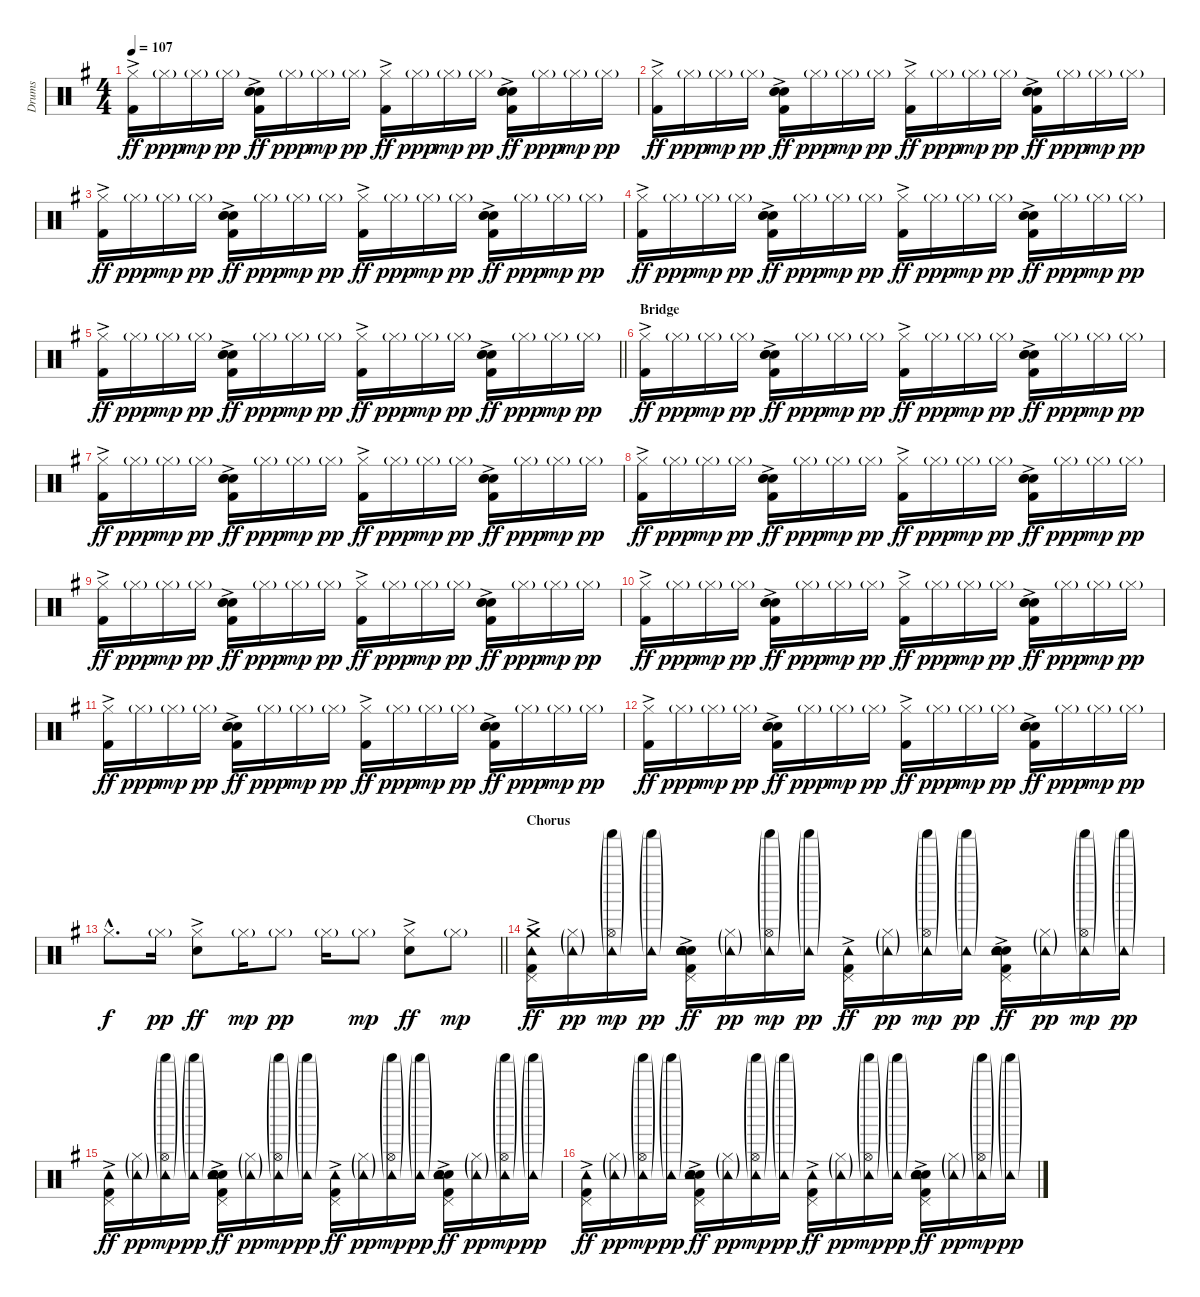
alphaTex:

\track ("Drums" "Drums") {instrument percussion}
\staff {score}
\articulation defaults
\ts (4 4)
\tempo 107
\clef neutral
\ks g
("Hi-Hat (closed)" "Kick (hit) 2"{ac}).16{dy ff} "Hi-Hat (closed)"{g}.16{dy ppp} "Hi-Hat (closed)"{g}.16{dy mp} "Hi-Hat (closed)"{g}.16{dy pp} ("Hand Clap (hit)" "Electric Snare (hit)"{ac} "Snare (hit) 2" "Kick (hit) 2"{ac}).16{dy ff} "Hi-Hat (closed)"{g}.16{dy ppp} "Hi-Hat (closed)"{g}.16{dy mp} "Hi-Hat (closed)"{g}.16{dy pp} ("Hi-Hat (closed)" "Kick (hit) 2"{ac}).16{dy ff} "Hi-Hat (closed)"{g}.16{dy ppp} "Hi-Hat (closed)"{g}.16{dy mp} "Hi-Hat (closed)"{g}.16{dy pp} ("Hand Clap (hit)" "Electric Snare (hit)"{ac} "Snare (hit) 2" "Kick (hit) 2"{ac}).16{dy ff} "Hi-Hat (closed)"{g}.16{dy ppp} "Hi-Hat (closed)"{g}.16{dy mp} "Hi-Hat (closed)"{g}.16{dy pp} |
("Hi-Hat (closed)" "Kick (hit) 2"{ac}).16{dy ff} "Hi-Hat (closed)"{g}.16{dy ppp} "Hi-Hat (closed)"{g}.16{dy mp} "Hi-Hat (closed)"{g}.16{dy pp} ("Hand Clap (hit)" "Electric Snare (hit)"{ac} "Snare (hit) 2" "Kick (hit) 2"{ac}).16{dy ff} "Hi-Hat (closed)"{g}.16{dy ppp} "Hi-Hat (closed)"{g}.16{dy mp} "Hi-Hat (closed)"{g}.16{dy pp} ("Hi-Hat (closed)" "Kick (hit) 2"{ac}).16{dy ff} "Hi-Hat (closed)"{g}.16{dy ppp} "Hi-Hat (closed)"{g}.16{dy mp} "Hi-Hat (closed)"{g}.16{dy pp} ("Hand Clap (hit)" "Electric Snare (hit)"{ac} "Snare (hit) 2" "Kick (hit) 2"{ac}).16{dy ff} "Hi-Hat (closed)"{g}.16{dy ppp} "Hi-Hat (closed)"{g}.16{dy mp} "Hi-Hat (closed)"{g}.16{dy pp} |
("Hi-Hat (closed)" "Kick (hit) 2"{ac}).16{dy ff} "Hi-Hat (closed)"{g}.16{dy ppp} "Hi-Hat (closed)"{g}.16{dy mp} "Hi-Hat (closed)"{g}.16{dy pp} ("Hand Clap (hit)" "Electric Snare (hit)"{ac} "Snare (hit) 2" "Kick (hit) 2"{ac}).16{dy ff} "Hi-Hat (closed)"{g}.16{dy ppp} "Hi-Hat (closed)"{g}.16{dy mp} "Hi-Hat (closed)"{g}.16{dy pp} ("Hi-Hat (closed)" "Kick (hit) 2"{ac}).16{dy ff} "Hi-Hat (closed)"{g}.16{dy ppp} "Hi-Hat (closed)"{g}.16{dy mp} "Hi-Hat (closed)"{g}.16{dy pp} ("Hand Clap (hit)" "Electric Snare (hit)"{ac} "Snare (hit) 2" "Kick (hit) 2"{ac}).16{dy ff} "Hi-Hat (closed)"{g}.16{dy ppp} "Hi-Hat (closed)"{g}.16{dy mp} "Hi-Hat (closed)"{g}.16{dy pp} |
("Hi-Hat (closed)" "Kick (hit) 2"{ac}).16{dy ff} "Hi-Hat (closed)"{g}.16{dy ppp} "Hi-Hat (closed)"{g}.16{dy mp} "Hi-Hat (closed)"{g}.16{dy pp} ("Hand Clap (hit)" "Electric Snare (hit)"{ac} "Snare (hit) 2" "Kick (hit) 2"{ac}).16{dy ff} "Hi-Hat (closed)"{g}.16{dy ppp} "Hi-Hat (closed)"{g}.16{dy mp} "Hi-Hat (closed)"{g}.16{dy pp} ("Hi-Hat (closed)" "Kick (hit) 2"{ac}).16{dy ff} "Hi-Hat (closed)"{g}.16{dy ppp} "Hi-Hat (closed)"{g}.16{dy mp} "Hi-Hat (closed)"{g}.16{dy pp} ("Hand Clap (hit)" "Electric Snare (hit)"{ac} "Snare (hit) 2" "Kick (hit) 2"{ac}).16{dy ff} "Hi-Hat (closed)"{g}.16{dy ppp} "Hi-Hat (closed)"{g}.16{dy mp} "Hi-Hat (closed)"{g}.16{dy pp} |
\barLineRight lightlight
("Hi-Hat (closed)" "Kick (hit) 2"{ac}).16{dy ff} "Hi-Hat (closed)"{g}.16{dy ppp} "Hi-Hat (closed)"{g}.16{dy mp} "Hi-Hat (closed)"{g}.16{dy pp} ("Hand Clap (hit)" "Electric Snare (hit)"{ac} "Snare (hit) 2" "Kick (hit) 2"{ac}).16{dy ff} "Hi-Hat (closed)"{g}.16{dy ppp} "Hi-Hat (closed)"{g}.16{dy mp} "Hi-Hat (closed)"{g}.16{dy pp} ("Hi-Hat (closed)" "Kick (hit) 2"{ac}).16{dy ff} "Hi-Hat (closed)"{g}.16{dy ppp} "Hi-Hat (closed)"{g}.16{dy mp} "Hi-Hat (closed)"{g}.16{dy pp} ("Hand Clap (hit)" "Electric Snare (hit)"{ac} "Snare (hit) 2" "Kick (hit) 2"{ac}).16{dy ff} "Hi-Hat (closed)"{g}.16{dy ppp} "Hi-Hat (closed)"{g}.16{dy mp} "Hi-Hat (closed)"{g}.16{dy pp} |
\section ("" "Bridge")
("Hi-Hat (closed)" "Kick (hit) 2"{ac}).16{dy ff} "Hi-Hat (closed)"{g}.16{dy ppp} "Hi-Hat (closed)"{g}.16{dy mp} "Hi-Hat (closed)"{g}.16{dy pp} ("Hand Clap (hit)" "Electric Snare (hit)"{ac} "Snare (hit) 2" "Kick (hit) 2"{ac}).16{dy ff} "Hi-Hat (closed)"{g}.16{dy ppp} "Hi-Hat (closed)"{g}.16{dy mp} "Hi-Hat (closed)"{g}.16{dy pp} ("Hi-Hat (closed)" "Kick (hit) 2"{ac}).16{dy ff} "Hi-Hat (closed)"{g}.16{dy ppp} "Hi-Hat (closed)"{g}.16{dy mp} "Hi-Hat (closed)"{g}.16{dy pp} ("Hand Clap (hit)" "Electric Snare (hit)"{ac} "Snare (hit) 2" "Kick (hit) 2"{ac}).16{dy ff} "Hi-Hat (closed)"{g}.16{dy ppp} "Hi-Hat (closed)"{g}.16{dy mp} "Hi-Hat (closed)"{g}.16{dy pp} |
("Hi-Hat (closed)" "Kick (hit) 2"{ac}).16{dy ff} "Hi-Hat (closed)"{g}.16{dy ppp} "Hi-Hat (closed)"{g}.16{dy mp} "Hi-Hat (closed)"{g}.16{dy pp} ("Hand Clap (hit)" "Electric Snare (hit)"{ac} "Snare (hit) 2" "Kick (hit) 2"{ac}).16{dy ff} "Hi-Hat (closed)"{g}.16{dy ppp} "Hi-Hat (closed)"{g}.16{dy mp} "Hi-Hat (closed)"{g}.16{dy pp} ("Hi-Hat (closed)" "Kick (hit) 2"{ac}).16{dy ff} "Hi-Hat (closed)"{g}.16{dy ppp} "Hi-Hat (closed)"{g}.16{dy mp} "Hi-Hat (closed)"{g}.16{dy pp} ("Hand Clap (hit)" "Electric Snare (hit)"{ac} "Snare (hit) 2" "Kick (hit) 2"{ac}).16{dy ff} "Hi-Hat (closed)"{g}.16{dy ppp} "Hi-Hat (closed)"{g}.16{dy mp} "Hi-Hat (closed)"{g}.16{dy pp} |
("Hi-Hat (closed)" "Kick (hit) 2"{ac}).16{dy ff} "Hi-Hat (closed)"{g}.16{dy ppp} "Hi-Hat (closed)"{g}.16{dy mp} "Hi-Hat (closed)"{g}.16{dy pp} ("Hand Clap (hit)" "Electric Snare (hit)"{ac} "Snare (hit) 2" "Kick (hit) 2"{ac}).16{dy ff} "Hi-Hat (closed)"{g}.16{dy ppp} "Hi-Hat (closed)"{g}.16{dy mp} "Hi-Hat (closed)"{g}.16{dy pp} ("Hi-Hat (closed)" "Kick (hit) 2"{ac}).16{dy ff} "Hi-Hat (closed)"{g}.16{dy ppp} "Hi-Hat (closed)"{g}.16{dy mp} "Hi-Hat (closed)"{g}.16{dy pp} ("Hand Clap (hit)" "Electric Snare (hit)"{ac} "Snare (hit) 2" "Kick (hit) 2"{ac}).16{dy ff} "Hi-Hat (closed)"{g}.16{dy ppp} "Hi-Hat (closed)"{g}.16{dy mp} "Hi-Hat (closed)"{g}.16{dy pp} |
("Hi-Hat (closed)" "Kick (hit) 2"{ac}).16{dy ff} "Hi-Hat (closed)"{g}.16{dy ppp} "Hi-Hat (closed)"{g}.16{dy mp} "Hi-Hat (closed)"{g}.16{dy pp} ("Hand Clap (hit)" "Electric Snare (hit)"{ac} "Snare (hit) 2" "Kick (hit) 2"{ac}).16{dy ff} "Hi-Hat (closed)"{g}.16{dy ppp} "Hi-Hat (closed)"{g}.16{dy mp} "Hi-Hat (closed)"{g}.16{dy pp} ("Hi-Hat (closed)" "Kick (hit) 2"{ac}).16{dy ff} "Hi-Hat (closed)"{g}.16{dy ppp} "Hi-Hat (closed)"{g}.16{dy mp} "Hi-Hat (closed)"{g}.16{dy pp} ("Hand Clap (hit)" "Electric Snare (hit)"{ac} "Snare (hit) 2" "Kick (hit) 2"{ac}).16{dy ff} "Hi-Hat (closed)"{g}.16{dy ppp} "Hi-Hat (closed)"{g}.16{dy mp} "Hi-Hat (closed)"{g}.16{dy pp} |
("Hi-Hat (closed)" "Kick (hit) 2"{ac}).16{dy ff} "Hi-Hat (closed)"{g}.16{dy ppp} "Hi-Hat (closed)"{g}.16{dy mp} "Hi-Hat (closed)"{g}.16{dy pp} ("Hand Clap (hit)" "Electric Snare (hit)"{ac} "Snare (hit) 2" "Kick (hit) 2"{ac}).16{dy ff} "Hi-Hat (closed)"{g}.16{dy ppp} "Hi-Hat (closed)"{g}.16{dy mp} "Hi-Hat (closed)"{g}.16{dy pp} ("Hi-Hat (closed)" "Kick (hit) 2"{ac}).16{dy ff} "Hi-Hat (closed)"{g}.16{dy ppp} "Hi-Hat (closed)"{g}.16{dy mp} "Hi-Hat (closed)"{g}.16{dy pp} ("Hand Clap (hit)" "Electric Snare (hit)"{ac} "Snare (hit) 2" "Kick (hit) 2"{ac}).16{dy ff} "Hi-Hat (closed)"{g}.16{dy ppp} "Hi-Hat (closed)"{g}.16{dy mp} "Hi-Hat (closed)"{g}.16{dy pp} |
("Hi-Hat (closed)" "Kick (hit) 2"{ac}).16{dy ff} "Hi-Hat (closed)"{g}.16{dy ppp} "Hi-Hat (closed)"{g}.16{dy mp} "Hi-Hat (closed)"{g}.16{dy pp} ("Hand Clap (hit)" "Electric Snare (hit)"{ac} "Snare (hit) 2" "Kick (hit) 2"{ac}).16{dy ff} "Hi-Hat (closed)"{g}.16{dy ppp} "Hi-Hat (closed)"{g}.16{dy mp} "Hi-Hat (closed)"{g}.16{dy pp} ("Hi-Hat (closed)" "Kick (hit) 2"{ac}).16{dy ff} "Hi-Hat (closed)"{g}.16{dy ppp} "Hi-Hat (closed)"{g}.16{dy mp} "Hi-Hat (closed)"{g}.16{dy pp} ("Hand Clap (hit)" "Electric Snare (hit)"{ac} "Snare (hit) 2" "Kick (hit) 2"{ac}).16{dy ff} "Hi-Hat (closed)"{g}.16{dy ppp} "Hi-Hat (closed)"{g}.16{dy mp} "Hi-Hat (closed)"{g}.16{dy pp} |
("Hi-Hat (closed)" "Kick (hit) 2"{ac}).16{dy ff} "Hi-Hat (closed)"{g}.16{dy ppp} "Hi-Hat (closed)"{g}.16{dy mp} "Hi-Hat (closed)"{g}.16{dy pp} ("Hand Clap (hit)" "Electric Snare (hit)"{ac} "Snare (hit) 2" "Kick (hit) 2"{ac}).16{dy ff} "Hi-Hat (closed)"{g}.16{dy ppp} "Hi-Hat (closed)"{g}.16{dy mp} "Hi-Hat (closed)"{g}.16{dy pp} ("Hi-Hat (closed)" "Kick (hit) 2"{ac}).16{dy ff} "Hi-Hat (closed)"{g}.16{dy ppp} "Hi-Hat (closed)"{g}.16{dy mp} "Hi-Hat (closed)"{g}.16{dy pp} ("Hand Clap (hit)" "Electric Snare (hit)"{ac} "Snare (hit) 2" "Kick (hit) 2"{ac}).16{dy ff} "Hi-Hat (closed)"{g}.16{dy ppp} "Hi-Hat (closed)"{g}.16{dy mp} "Hi-Hat (closed)"{g}.16{dy pp} |
\barLineRight lightlight "Hi-Hat (closed)"{hac}.8{d dy f} "Hi-Hat (closed)"{g}.16{dy pp}
("Hi-Hat (closed)" "Hand Clap (hit)"{ac}).8{dy ff} "Hi-Hat (closed)"{g}.16{dy mp} "Hi-Hat (closed)"{g}.8{dy pp} "Hi-Hat (closed)"{g}.16 "Hi-Hat (closed)"{g}.8{dy mp} ("Hi-Hat (closed)" "Hand Clap (hit)"{ac}).8{dy ff} "Hi-Hat (closed)"{g}.8{dy mp} |
\section ("" "Chorus")
("Kick (hit) 2"{ac} "Crash medium (hit)" "Pedal Hi-Hat (hit)" "Tambourine (hit)").16{dy ff} ("Hi-Hat (closed)"{g} "Tambourine (hit)"{g}).16{dy pp} ("Shaker (hit)"{g} "Hi-Hat (open)"{g} "Tambourine (hit)"{g}).16{dy mp} ("Shaker (hit)"{g} "Tambourine (hit)"{g}).16{dy pp} ("Kick (hit) 2"{ac} "Electric Snare (hit)"{ac} "Snare (hit) 2" "Hand Clap (hit)" "Pedal Hi-Hat (hit)" "Tambourine (hit)").16{dy ff} ("Hi-Hat (closed)"{g} "Tambourine (hit)"{g}).16{dy pp} ("Shaker (hit)"{g} "Hi-Hat (open)"{g} "Tambourine (hit)"{g}).16{dy mp} ("Shaker (hit)"{g} "Tambourine (hit)"{g}).16{dy pp} ("Kick (hit) 2"{ac} "Pedal Hi-Hat (hit)" "Tambourine (hit)").16{dy ff} ("Hi-Hat (closed)"{g} "Tambourine (hit)"{g}).16{dy pp} ("Shaker (hit)"{g} "Hi-Hat (open)"{g} "Tambourine (hit)"{g}).16{dy mp} ("Shaker (hit)"{g} "Tambourine (hit)"{g}).16{dy pp} ("Kick (hit) 2"{ac} "Electric Snare (hit)"{ac} "Snare (hit) 2" "Hand Clap (hit)" "Pedal Hi-Hat (hit)" "Tambourine (hit)").16{dy ff} ("Hi-Hat (closed)"{g} "Tambourine (hit)"{g}).16{dy pp} ("Shaker (hit)"{g} "Hi-Hat (open)"{g} "Tambourine (hit)"{g}).16{dy mp} ("Shaker (hit)"{g} "Tambourine (hit)"{g}).16{dy pp} |
("Kick (hit) 2"{ac} "Pedal Hi-Hat (hit)" "Tambourine (hit)").16{dy ff} ("Hi-Hat (closed)"{g} "Tambourine (hit)"{g}).16{dy pp} ("Shaker (hit)"{g} "Hi-Hat (open)"{g} "Tambourine (hit)"{g}).16{dy mp} ("Shaker (hit)"{g} "Tambourine (hit)"{g}).16{dy pp} ("Kick (hit) 2"{ac} "Electric Snare (hit)"{ac} "Snare (hit) 2" "Hand Clap (hit)" "Pedal Hi-Hat (hit)" "Tambourine (hit)").16{dy ff} ("Hi-Hat (closed)"{g} "Tambourine (hit)"{g}).16{dy pp} ("Shaker (hit)"{g} "Hi-Hat (open)"{g} "Tambourine (hit)"{g}).16{dy mp} ("Shaker (hit)"{g} "Tambourine (hit)"{g}).16{dy pp} ("Kick (hit) 2"{ac} "Pedal Hi-Hat (hit)" "Tambourine (hit)").16{dy ff} ("Hi-Hat (closed)"{g} "Tambourine (hit)"{g}).16{dy pp} ("Shaker (hit)"{g} "Hi-Hat (open)"{g} "Tambourine (hit)"{g}).16{dy mp} ("Shaker (hit)"{g} "Tambourine (hit)"{g}).16{dy pp} ("Kick (hit) 2"{ac} "Electric Snare (hit)"{ac} "Snare (hit) 2" "Hand Clap (hit)" "Pedal Hi-Hat (hit)" "Tambourine (hit)").16{dy ff} ("Hi-Hat (closed)"{g} "Tambourine (hit)"{g}).16{dy pp} ("Shaker (hit)"{g} "Hi-Hat (open)"{g} "Tambourine (hit)"{g}).16{dy mp} ("Shaker (hit)"{g} "Tambourine (hit)"{g}).16{dy pp} |
("Kick (hit) 2"{ac} "Pedal Hi-Hat (hit)" "Tambourine (hit)").16{dy ff} ("Hi-Hat (closed)"{g} "Tambourine (hit)"{g}).16{dy pp} ("Shaker (hit)"{g} "Hi-Hat (open)"{g} "Tambourine (hit)"{g}).16{dy mp} ("Shaker (hit)"{g} "Tambourine (hit)"{g}).16{dy pp} ("Kick (hit) 2"{ac} "Electric Snare (hit)"{ac} "Snare (hit) 2" "Hand Clap (hit)" "Pedal Hi-Hat (hit)" "Tambourine (hit)").16{dy ff} ("Hi-Hat (closed)"{g} "Tambourine (hit)"{g}).16{dy pp} ("Shaker (hit)"{g} "Hi-Hat (open)"{g} "Tambourine (hit)"{g}).16{dy mp} ("Shaker (hit)"{g} "Tambourine (hit)"{g}).16{dy pp} ("Kick (hit) 2"{ac} "Pedal Hi-Hat (hit)" "Tambourine (hit)").16{dy ff} ("Hi-Hat (closed)"{g} "Tambourine (hit)"{g}).16{dy pp} ("Shaker (hit)"{g} "Hi-Hat (open)"{g} "Tambourine (hit)"{g}).16{dy mp} ("Shaker (hit)"{g} "Tambourine (hit)"{g}).16{dy pp} ("Kick (hit) 2"{ac} "Electric Snare (hit)"{ac} "Snare (hit) 2" "Hand Clap (hit)" "Pedal Hi-Hat (hit)" "Tambourine (hit)").16{dy ff} ("Hi-Hat (closed)"{g} "Tambourine (hit)"{g}).16{dy pp} ("Shaker (hit)"{g} "Hi-Hat (open)"{g} "Tambourine (hit)"{g}).16{dy mp} ("Shaker (hit)"{g} "Tambourine (hit)"{g}).16{dy pp}
